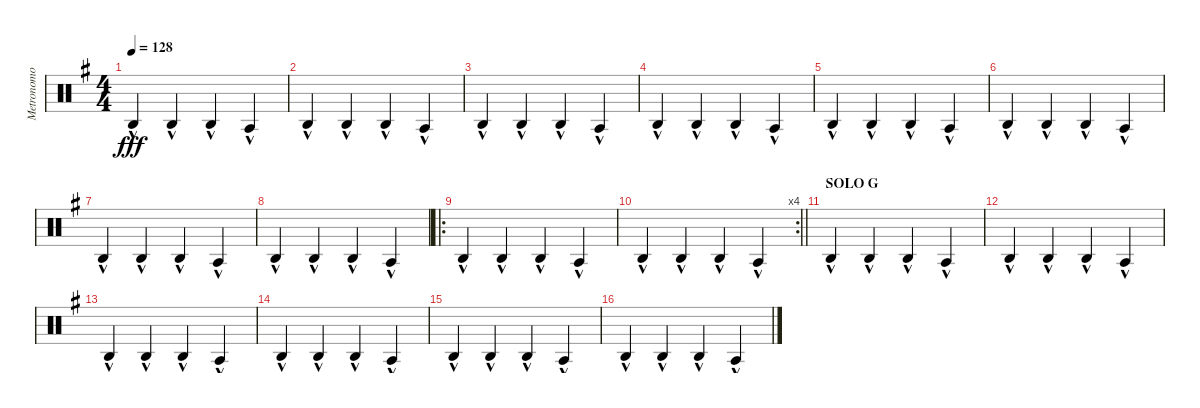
\track ("Metronomo" "Metronomo") {mute instrument percussion}
\staff {score}
\articulation defaults
\ts (4 4)
\tempo 128
\clef neutral
\ks eminor "Agogo high (hit)"{hac}.4{dy fff} "Agogo high (hit)"{hac}.4 "Agogo high (hit)"{hac}.4 "Agogo tow (hit)"{hac}.4
|
"Agogo high (hit)"{hac}.4 "Agogo high (hit)"{hac}.4 "Agogo high (hit)"{hac}.4 "Agogo tow (hit)"{hac}.4 |
"Agogo high (hit)"{hac}.4 "Agogo high (hit)"{hac}.4 "Agogo high (hit)"{hac}.4 "Agogo tow (hit)"{hac}.4 |
"Agogo high (hit)"{hac}.4 "Agogo high (hit)"{hac}.4 "Agogo high (hit)"{hac}.4 "Agogo tow (hit)"{hac}.4 |
"Agogo high (hit)"{hac}.4 "Agogo high (hit)"{hac}.4 "Agogo high (hit)"{hac}.4 "Agogo tow (hit)"{hac}.4 |
"Agogo high (hit)"{hac}.4 "Agogo high (hit)"{hac}.4 "Agogo high (hit)"{hac}.4 "Agogo tow (hit)"{hac}.4 |
"Agogo high (hit)"{hac}.4 "Agogo high (hit)"{hac}.4 "Agogo high (hit)"{hac}.4 "Agogo tow (hit)"{hac}.4 |
"Agogo high (hit)"{hac}.4 "Agogo high (hit)"{hac}.4 "Agogo high (hit)"{hac}.4 "Agogo tow (hit)"{hac}.4 |
\ro "Agogo high (hit)"{hac}.4 "Agogo high (hit)"{hac}.4 "Agogo high (hit)"{hac}.4 "Agogo tow (hit)"{hac}.4
|
\rc 4
\barLineRight lightlight "Agogo high (hit)"{hac}.4 "Agogo high (hit)"{hac}.4 "Agogo high (hit)"{hac}.4 "Agogo tow (hit)"{hac}.4
|
\section ("" "SOLO G")
"Agogo high (hit)"{hac}.4 "Agogo high (hit)"{hac}.4 "Agogo high (hit)"{hac}.4 "Agogo tow (hit)"{hac}.4 |
"Agogo high (hit)"{hac}.4 "Agogo high (hit)"{hac}.4 "Agogo high (hit)"{hac}.4 "Agogo tow (hit)"{hac}.4 |
"Agogo high (hit)"{hac}.4 "Agogo high (hit)"{hac}.4 "Agogo high (hit)"{hac}.4 "Agogo tow (hit)"{hac}.4 |
"Agogo high (hit)"{hac}.4 "Agogo high (hit)"{hac}.4 "Agogo high (hit)"{hac}.4 "Agogo tow (hit)"{hac}.4 |
"Agogo high (hit)"{hac}.4 "Agogo high (hit)"{hac}.4 "Agogo high (hit)"{hac}.4 "Agogo tow (hit)"{hac}.4 |
"Agogo high (hit)"{hac}.4 "Agogo high (hit)"{hac}.4 "Agogo high (hit)"{hac}.4 "Agogo tow (hit)"{hac}.4
